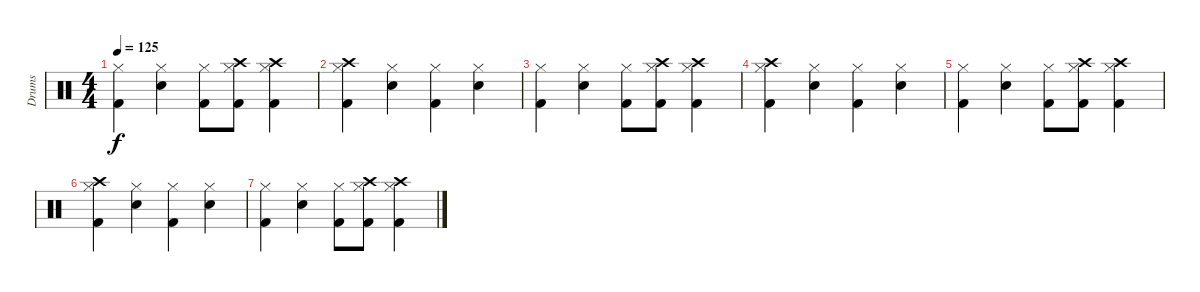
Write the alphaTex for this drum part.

\track ("Drums" "Drums") {instrument percussion}
\staff {score}
\articulation defaults
\ts (4 4)
\tempo 125
\clef neutral
\ks c
("Kick (hit) 2" "Hi-Hat (closed)").4{dy f} ("Electric Snare (hit)" "Hi-Hat (closed)").4 ("Kick (hit) 2" "Hi-Hat (closed)").8 ("Kick (hit) 2" "Crash high (hit)" "Hi-Hat (closed)").8 ("Kick (hit) 2" "Crash high (hit)" "Hi-Hat (closed)").4 |
("Kick (hit) 2" "Crash high (hit)" "Hi-Hat (closed)").4 ("Electric Snare (hit)" "Hi-Hat (closed)").4 ("Kick (hit) 2" "Hi-Hat (closed)").4 ("Electric Snare (hit)" "Hi-Hat (closed)").4 |
("Kick (hit) 2" "Hi-Hat (closed)").4 ("Electric Snare (hit)" "Hi-Hat (closed)").4 ("Kick (hit) 2" "Hi-Hat (closed)").8 ("Kick (hit) 2" "Crash high (hit)" "Hi-Hat (closed)").8 ("Kick (hit) 2" "Crash high (hit)" "Hi-Hat (closed)").4 |
("Kick (hit) 2" "Crash high (hit)" "Hi-Hat (closed)").4 ("Electric Snare (hit)" "Hi-Hat (closed)").4 ("Kick (hit) 2" "Hi-Hat (closed)").4 ("Electric Snare (hit)" "Hi-Hat (closed)").4 |
("Kick (hit) 2" "Hi-Hat (closed)").4 ("Electric Snare (hit)" "Hi-Hat (closed)").4 ("Kick (hit) 2" "Hi-Hat (closed)").8 ("Kick (hit) 2" "Crash high (hit)" "Hi-Hat (closed)").8 ("Kick (hit) 2" "Crash high (hit)" "Hi-Hat (closed)").4 |
("Kick (hit) 2" "Crash high (hit)" "Hi-Hat (closed)").4 ("Electric Snare (hit)" "Hi-Hat (closed)").4 ("Kick (hit) 2" "Hi-Hat (closed)").4 ("Electric Snare (hit)" "Hi-Hat (closed)").4 |
("Kick (hit) 2" "Hi-Hat (closed)").4 ("Electric Snare (hit)" "Hi-Hat (closed)").4 ("Kick (hit) 2" "Hi-Hat (closed)").8 ("Kick (hit) 2" "Crash high (hit)" "Hi-Hat (closed)").8 ("Kick (hit) 2" "Crash high (hit)" "Hi-Hat (closed)").4
